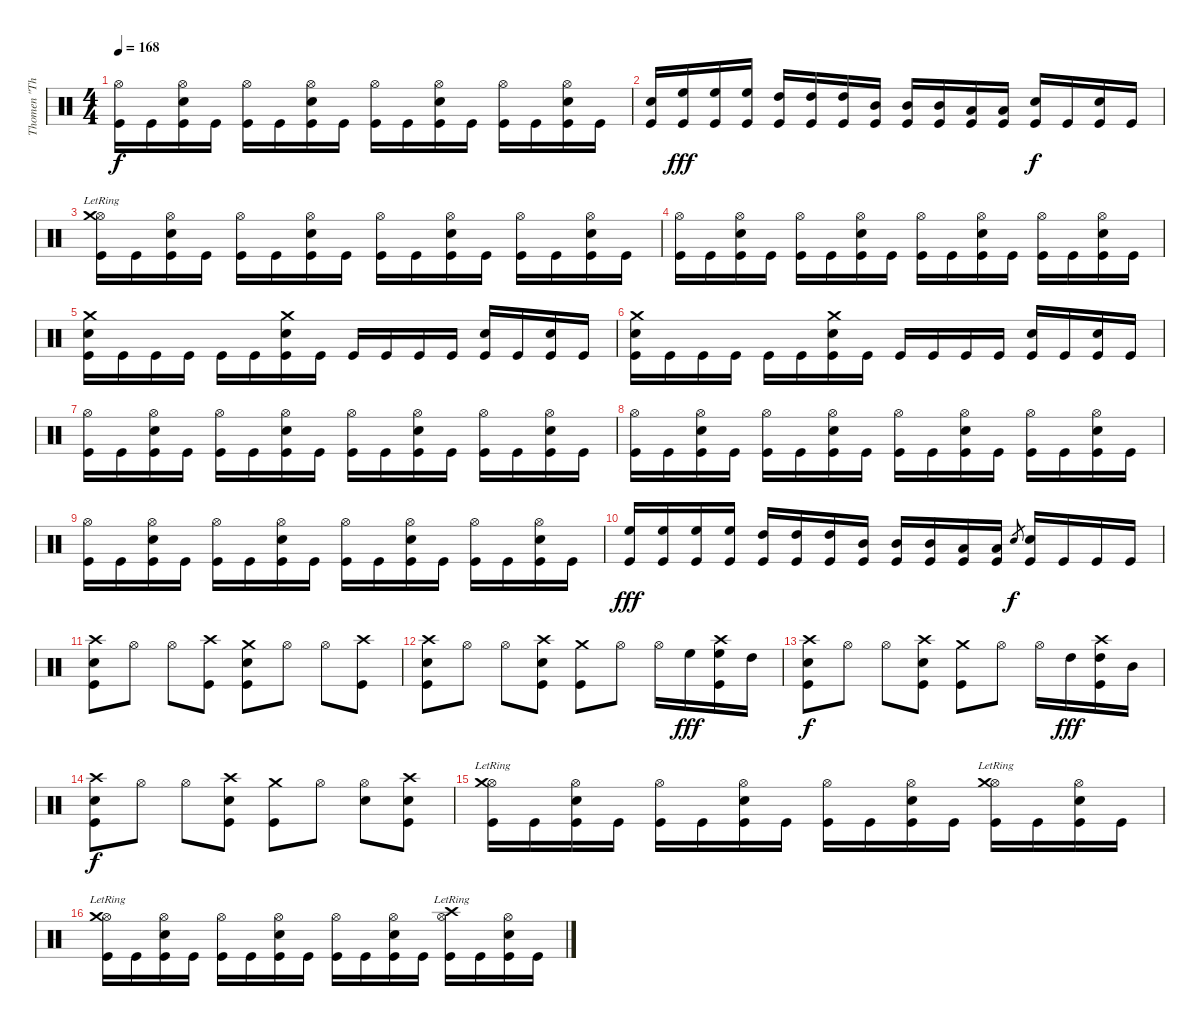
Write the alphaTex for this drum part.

\track ("Thomen \"The Omen\" Stauch" "Thomen \"Th") {instrument percussion}
\staff {score}
\articulation defaults
\ts (4 4)
\tempo 168
\clef neutral
\ks c
("Hi-Hat (open)" "Kick (hit)").16{dy f} "Kick (hit)".16 ("Hi-Hat (open)" "Snare (hit) 2" "Kick (hit)").16 "Kick (hit)".16 ("Hi-Hat (open)" "Kick (hit)").16 "Kick (hit)".16 ("Hi-Hat (open)" "Snare (hit) 2" "Kick (hit)").16 "Kick (hit)".16 ("Hi-Hat (open)" "Kick (hit)").16 "Kick (hit)".16 ("Hi-Hat (open)" "Snare (hit) 2" "Kick (hit)").16 "Kick (hit)".16 ("Hi-Hat (open)" "Kick (hit)").16 "Kick (hit)".16 ("Hi-Hat (open)" "Snare (hit) 2" "Kick (hit)").16 "Kick (hit)".16 |
("Snare (hit) 2" "Kick (hit)").16 ("High Floor Tom (hit)" "Kick (hit)").16{dy fff} ("High Floor Tom (hit)" "Kick (hit)").16 ("High Floor Tom (hit)" "Kick (hit)").16 ("High Tom (hit)" "Kick (hit)").16 ("High Tom (hit)" "Kick (hit)").16 ("High Tom (hit)" "Kick (hit)").16 ("Mid Tom (hit)" "Kick (hit)").16 ("Mid Tom (hit)" "Kick (hit)").16 ("Mid Tom (hit)" "Kick (hit)").16 ("Low Tom (hit)" "Kick (hit)").16 ("Low Tom (hit)" "Kick (hit)").16 ("Snare (hit) 2" "Kick (hit)").16{dy f} "Kick (hit)".16 ("Snare (hit) 2" "Kick (hit)").16 "Kick (hit)".16 |
("Hi-Hat (open)" "Crash medium (hit)"{lr} "Kick (hit)").16 "Kick (hit)".16 ("Hi-Hat (open)" "Snare (hit) 2" "Kick (hit)").16 "Kick (hit)".16 ("Hi-Hat (open)" "Kick (hit)").16 "Kick (hit)".16 ("Hi-Hat (open)" "Snare (hit) 2" "Kick (hit)").16 "Kick (hit)".16 ("Hi-Hat (open)" "Kick (hit)").16 "Kick (hit)".16 ("Hi-Hat (open)" "Snare (hit) 2" "Kick (hit)").16 "Kick (hit)".16 ("Hi-Hat (open)" "Kick (hit)").16 "Kick (hit)".16 ("Hi-Hat (open)" "Snare (hit) 2" "Kick (hit)").16 "Kick (hit)".16 |
("Hi-Hat (open)" "Kick (hit)").16 "Kick (hit)".16 ("Hi-Hat (open)" "Snare (hit) 2" "Kick (hit)").16 "Kick (hit)".16 ("Hi-Hat (open)" "Kick (hit)").16 "Kick (hit)".16 ("Hi-Hat (open)" "Snare (hit) 2" "Kick (hit)").16 "Kick (hit)".16 ("Hi-Hat (open)" "Kick (hit)").16 "Kick (hit)".16 ("Hi-Hat (open)" "Snare (hit) 2" "Kick (hit)").16 "Kick (hit)".16 ("Hi-Hat (open)" "Kick (hit)").16 "Kick (hit)".16 ("Hi-Hat (open)" "Snare (hit) 2" "Kick (hit)").16 "Kick (hit)".16 |
("Crash medium (hit)" "Snare (hit) 2" "Kick (hit)").16 "Kick (hit)".16 "Kick (hit)".16 "Kick (hit)".16 "Kick (hit)".16 "Kick (hit)".16 ("Crash medium (hit)" "Snare (hit) 2" "Kick (hit)").16 "Kick (hit)".16 "Kick (hit)".16 "Kick (hit)".16 "Kick (hit)".16 "Kick (hit)".16 ("Snare (hit) 2" "Kick (hit)").16 "Kick (hit)".16 ("Snare (hit) 2" "Kick (hit)").16 "Kick (hit)".16 |
("Crash medium (hit)" "Snare (hit) 2" "Kick (hit)").16 "Kick (hit)".16 "Kick (hit)".16 "Kick (hit)".16 "Kick (hit)".16 "Kick (hit)".16 ("Crash medium (hit)" "Snare (hit) 2" "Kick (hit)").16 "Kick (hit)".16 "Kick (hit)".16 "Kick (hit)".16 "Kick (hit)".16 "Kick (hit)".16 ("Snare (hit) 2" "Kick (hit)").16 "Kick (hit)".16 ("Snare (hit) 2" "Kick (hit)").16 "Kick (hit)".16 |
("Hi-Hat (open)" "Kick (hit)").16 "Kick (hit)".16 ("Hi-Hat (open)" "Snare (hit) 2" "Kick (hit)").16 "Kick (hit)".16 ("Hi-Hat (open)" "Kick (hit)").16 "Kick (hit)".16 ("Hi-Hat (open)" "Snare (hit) 2" "Kick (hit)").16 "Kick (hit)".16 ("Hi-Hat (open)" "Kick (hit)").16 "Kick (hit)".16 ("Hi-Hat (open)" "Snare (hit) 2" "Kick (hit)").16 "Kick (hit)".16 ("Hi-Hat (open)" "Kick (hit)").16 "Kick (hit)".16 ("Hi-Hat (open)" "Snare (hit) 2" "Kick (hit)").16 "Kick (hit)".16 |
("Hi-Hat (open)" "Kick (hit)").16 "Kick (hit)".16 ("Hi-Hat (open)" "Snare (hit) 2" "Kick (hit)").16 "Kick (hit)".16 ("Hi-Hat (open)" "Kick (hit)").16 "Kick (hit)".16 ("Hi-Hat (open)" "Snare (hit) 2" "Kick (hit)").16 "Kick (hit)".16 ("Hi-Hat (open)" "Kick (hit)").16 "Kick (hit)".16 ("Hi-Hat (open)" "Snare (hit) 2" "Kick (hit)").16 "Kick (hit)".16 ("Hi-Hat (open)" "Kick (hit)").16 "Kick (hit)".16 ("Hi-Hat (open)" "Snare (hit) 2" "Kick (hit)").16 "Kick (hit)".16 |
("Hi-Hat (open)" "Kick (hit)").16 "Kick (hit)".16 ("Hi-Hat (open)" "Snare (hit) 2" "Kick (hit)").16 "Kick (hit)".16 ("Hi-Hat (open)" "Kick (hit)").16 "Kick (hit)".16 ("Hi-Hat (open)" "Snare (hit) 2" "Kick (hit)").16 "Kick (hit)".16 ("Hi-Hat (open)" "Kick (hit)").16 "Kick (hit)".16 ("Hi-Hat (open)" "Snare (hit) 2" "Kick (hit)").16 "Kick (hit)".16 ("Hi-Hat (open)" "Kick (hit)").16 "Kick (hit)".16 ("Hi-Hat (open)" "Snare (hit) 2" "Kick (hit)").16 "Kick (hit)".16 |
("High Floor Tom (hit)" "Kick (hit)").16{dy fff} ("High Floor Tom (hit)" "Kick (hit)").16 ("High Floor Tom (hit)" "Kick (hit)").16 ("High Floor Tom (hit)" "Kick (hit)").16 ("High Tom (hit)" "Kick (hit)").16 ("High Tom (hit)" "Kick (hit)").16 ("High Tom (hit)" "Kick (hit)").16 ("Mid Tom (hit)" "Kick (hit)").16 ("Mid Tom (hit)" "Kick (hit)").16 ("Mid Tom (hit)" "Kick (hit)").16 ("Low Tom (hit)" "Kick (hit)").16 ("Low Tom (hit)" "Kick (hit)").16 "Snare (hit) 2".8{gr dy f} ("Snare (hit) 2" "Kick (hit)").16 "Kick (hit)".16 "Kick (hit)".16 "Kick (hit)".16 |
("Crash high (hit)" "Snare (hit) 2" "Kick (hit)").8 "Hi-Hat (open)".8 "Hi-Hat (open)".8 ("Crash high (hit)" "Kick (hit)").8 ("Crash medium (hit)" "Snare (hit) 2" "Kick (hit)").8 "Hi-Hat (open)".8 "Hi-Hat (open)".8 ("Crash high (hit)" "Kick (hit)").8 |
("Crash high (hit)" "Snare (hit) 2" "Kick (hit)").8 "Hi-Hat (open)".8 "Hi-Hat (open)".8 ("Crash high (hit)" "Snare (hit) 2" "Kick (hit)").8 ("Crash medium (hit)" "Kick (hit)").8 "Hi-Hat (open)".8 "Hi-Hat (open)".16 "High Floor Tom (hit)".16{dy fff} ("Crash high (hit)" "High Floor Tom (hit)" "Kick (hit)").16 "High Tom (hit)".16 |
("Crash high (hit)" "Snare (hit) 2" "Kick (hit)").8{dy f} "Hi-Hat (open)".8 "Hi-Hat (open)".8 ("Crash high (hit)" "Snare (hit) 2" "Kick (hit)").8 ("Crash medium (hit)" "Kick (hit)").8 "Hi-Hat (open)".8 "Hi-Hat (open)".16 "High Tom (hit)".16{dy fff} ("Crash high (hit)" "High Tom (hit)" "Kick (hit)").16 "Mid Tom (hit)".16 |
("Crash high (hit)" "Snare (hit) 2" "Kick (hit)").8{dy f} "Hi-Hat (open)".8 "Hi-Hat (open)".8 ("Crash high (hit)" "Snare (hit) 2" "Kick (hit)").8 ("Crash medium (hit)" "Kick (hit)").8 "Hi-Hat (open)".8 ("Hi-Hat (open)" "Snare (hit) 2").8 ("Crash high (hit)" "Snare (hit) 2" "Kick (hit)").8 |
("Hi-Hat (open)" "Crash medium (hit)"{lr} "Kick (hit)").16 "Kick (hit)".16 ("Hi-Hat (open)" "Snare (hit) 2" "Kick (hit)").16 "Kick (hit)".16 ("Hi-Hat (open)" "Kick (hit)").16 "Kick (hit)".16 ("Hi-Hat (open)" "Snare (hit) 2" "Kick (hit)").16 "Kick (hit)".16 ("Hi-Hat (open)" "Kick (hit)").16 "Kick (hit)".16 ("Hi-Hat (open)" "Snare (hit) 2" "Kick (hit)").16 "Kick (hit)".16 ("Hi-Hat (open)" "Crash medium (hit)"{lr} "Kick (hit)").16 "Kick (hit)".16 ("Hi-Hat (open)" "Snare (hit) 2" "Kick (hit)").16 "Kick (hit)".16 |
("Hi-Hat (open)" "Crash medium (hit)"{lr} "Kick (hit)").16 "Kick (hit)".16 ("Hi-Hat (open)" "Snare (hit) 2" "Kick (hit)").16 "Kick (hit)".16 ("Hi-Hat (open)" "Kick (hit)").16 "Kick (hit)".16 ("Hi-Hat (open)" "Snare (hit) 2" "Kick (hit)").16 "Kick (hit)".16 ("Hi-Hat (open)" "Kick (hit)").16 "Kick (hit)".16 ("Hi-Hat (open)" "Snare (hit) 2" "Kick (hit)").16 "Kick (hit)".16 ("Hi-Hat (open)" "Crash high (hit)"{lr} "Kick (hit)").16 "Kick (hit)".16 ("Hi-Hat (open)" "Snare (hit) 2" "Kick (hit)").16 "Kick (hit)".16
